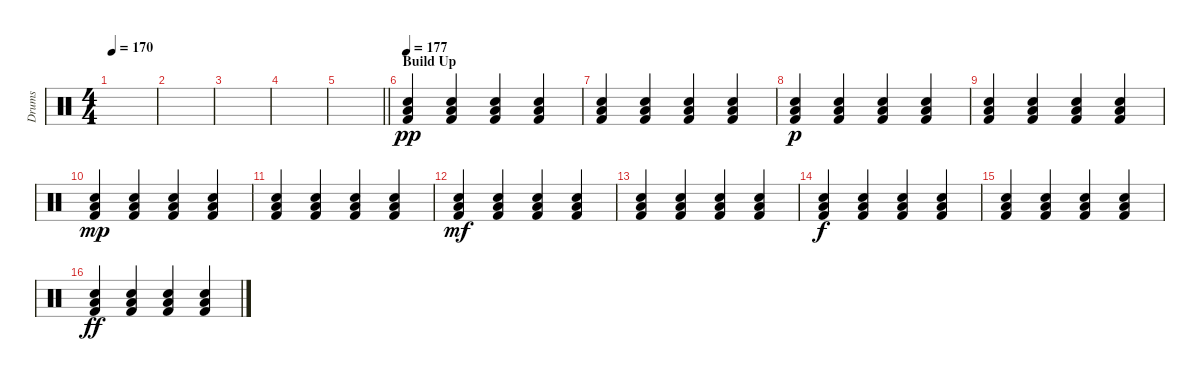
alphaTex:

\track ("Drums" "Drums") {instrument percussion}
\staff {score}
\articulation defaults
\ts (4 4)
\tempo 170
\clef neutral
\ks c
|
|
|
|
\barLineRight lightlight
|
\section ("" "Build Up")
\tempo 177
("Low Floor Tom (hit)" "Snare (hit) 2" "Kick (hit) 2").4{dy pp} ("Low Floor Tom (hit)" "Snare (hit) 2" "Kick (hit) 2").4 ("Low Floor Tom (hit)" "Snare (hit) 2" "Kick (hit) 2").4 ("Low Floor Tom (hit)" "Snare (hit) 2" "Kick (hit) 2").4 |
("Low Floor Tom (hit)" "Snare (hit) 2" "Kick (hit) 2").4 ("Low Floor Tom (hit)" "Snare (hit) 2" "Kick (hit) 2").4 ("Low Floor Tom (hit)" "Snare (hit) 2" "Kick (hit) 2").4 ("Low Floor Tom (hit)" "Snare (hit) 2" "Kick (hit) 2").4 |
("Low Floor Tom (hit)" "Snare (hit) 2" "Kick (hit) 2").4{dy p} ("Low Floor Tom (hit)" "Snare (hit) 2" "Kick (hit) 2").4 ("Low Floor Tom (hit)" "Snare (hit) 2" "Kick (hit) 2").4 ("Low Floor Tom (hit)" "Snare (hit) 2" "Kick (hit) 2").4 |
("Low Floor Tom (hit)" "Snare (hit) 2" "Kick (hit) 2").4 ("Low Floor Tom (hit)" "Snare (hit) 2" "Kick (hit) 2").4 ("Low Floor Tom (hit)" "Snare (hit) 2" "Kick (hit) 2").4 ("Low Floor Tom (hit)" "Snare (hit) 2" "Kick (hit) 2").4 |
("Low Floor Tom (hit)" "Snare (hit) 2" "Kick (hit) 2").4{dy mp} ("Low Floor Tom (hit)" "Snare (hit) 2" "Kick (hit) 2").4 ("Low Floor Tom (hit)" "Snare (hit) 2" "Kick (hit) 2").4 ("Low Floor Tom (hit)" "Snare (hit) 2" "Kick (hit) 2").4 |
("Low Floor Tom (hit)" "Snare (hit) 2" "Kick (hit) 2").4 ("Low Floor Tom (hit)" "Snare (hit) 2" "Kick (hit) 2").4 ("Low Floor Tom (hit)" "Snare (hit) 2" "Kick (hit) 2").4 ("Low Floor Tom (hit)" "Snare (hit) 2" "Kick (hit) 2").4 |
("Low Floor Tom (hit)" "Snare (hit) 2" "Kick (hit) 2").4{dy mf} ("Low Floor Tom (hit)" "Snare (hit) 2" "Kick (hit) 2").4 ("Low Floor Tom (hit)" "Snare (hit) 2" "Kick (hit) 2").4 ("Low Floor Tom (hit)" "Snare (hit) 2" "Kick (hit) 2").4 |
("Low Floor Tom (hit)" "Snare (hit) 2" "Kick (hit) 2").4 ("Low Floor Tom (hit)" "Snare (hit) 2" "Kick (hit) 2").4 ("Low Floor Tom (hit)" "Snare (hit) 2" "Kick (hit) 2").4 ("Low Floor Tom (hit)" "Snare (hit) 2" "Kick (hit) 2").4 |
("Low Floor Tom (hit)" "Snare (hit) 2" "Kick (hit) 2").4{dy f} ("Low Floor Tom (hit)" "Snare (hit) 2" "Kick (hit) 2").4 ("Low Floor Tom (hit)" "Snare (hit) 2" "Kick (hit) 2").4 ("Low Floor Tom (hit)" "Snare (hit) 2" "Kick (hit) 2").4 |
("Low Floor Tom (hit)" "Snare (hit) 2" "Kick (hit) 2").4 ("Low Floor Tom (hit)" "Snare (hit) 2" "Kick (hit) 2").4 ("Low Floor Tom (hit)" "Snare (hit) 2" "Kick (hit) 2").4 ("Low Floor Tom (hit)" "Snare (hit) 2" "Kick (hit) 2").4 |
("Low Floor Tom (hit)" "Snare (hit) 2" "Kick (hit) 2").4{dy ff} ("Low Floor Tom (hit)" "Snare (hit) 2" "Kick (hit) 2").4 ("Low Floor Tom (hit)" "Snare (hit) 2" "Kick (hit) 2").4 ("Low Floor Tom (hit)" "Snare (hit) 2" "Kick (hit) 2").4
